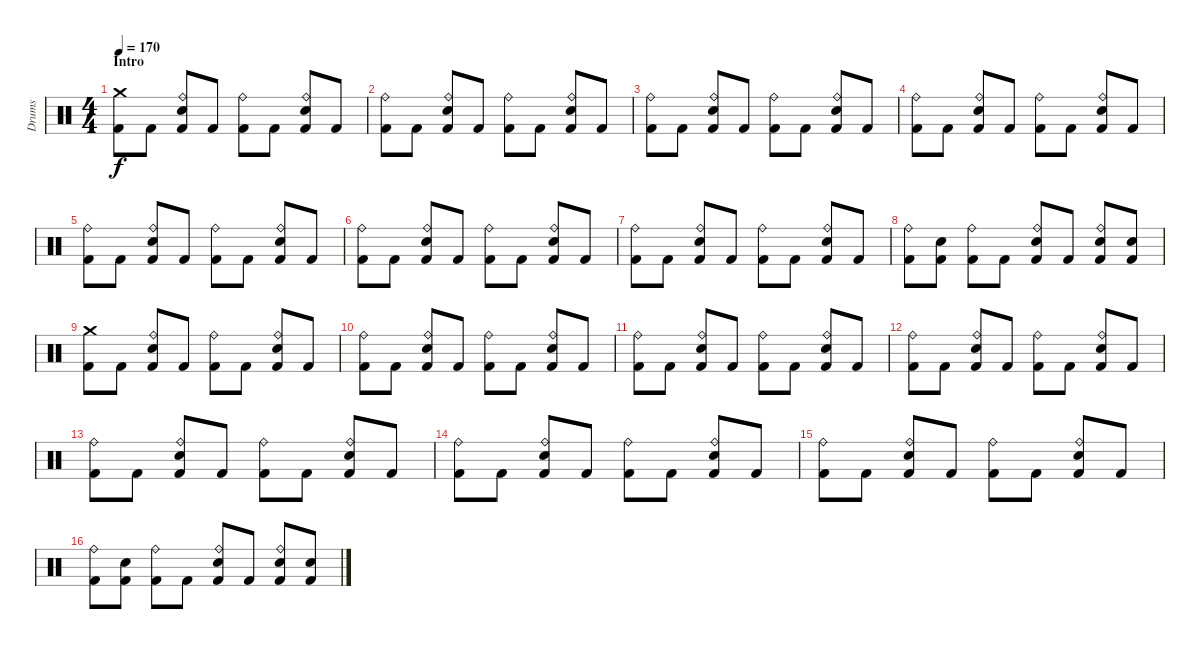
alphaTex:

\track ("Drums" "Drums") {instrument percussion}
\staff {score}
\articulation defaults
\ts (4 4)
\section ("" "Intro")
\tempo 170
\clef neutral
\ks c
("Crash medium (hit)" "Kick (hit) 2").8{dy f} "Kick (hit) 2".8 ("Ride (bell)" "Electric Snare (hit)" "Kick (hit) 2").8 "Kick (hit) 2".8 ("Ride (bell)" "Kick (hit) 2").8 "Kick (hit) 2".8 ("Ride (bell)" "Electric Snare (hit)" "Kick (hit) 2").8 "Kick (hit) 2".8 |
("Ride (bell)" "Kick (hit) 2").8 "Kick (hit) 2".8 ("Ride (bell)" "Electric Snare (hit)" "Kick (hit) 2").8 "Kick (hit) 2".8 ("Ride (bell)" "Kick (hit) 2").8 "Kick (hit) 2".8 ("Ride (bell)" "Electric Snare (hit)" "Kick (hit) 2").8 "Kick (hit) 2".8 |
("Ride (bell)" "Kick (hit) 2").8 "Kick (hit) 2".8 ("Ride (bell)" "Electric Snare (hit)" "Kick (hit) 2").8 "Kick (hit) 2".8 ("Ride (bell)" "Kick (hit) 2").8 "Kick (hit) 2".8 ("Ride (bell)" "Electric Snare (hit)" "Kick (hit) 2").8 "Kick (hit) 2".8 |
("Ride (bell)" "Kick (hit) 2").8 "Kick (hit) 2".8 ("Ride (bell)" "Electric Snare (hit)" "Kick (hit) 2").8 "Kick (hit) 2".8 ("Ride (bell)" "Kick (hit) 2").8 "Kick (hit) 2".8 ("Ride (bell)" "Electric Snare (hit)" "Kick (hit) 2").8 "Kick (hit) 2".8 |
("Ride (bell)" "Kick (hit) 2").8 "Kick (hit) 2".8 ("Ride (bell)" "Electric Snare (hit)" "Kick (hit) 2").8 "Kick (hit) 2".8 ("Ride (bell)" "Kick (hit) 2").8 "Kick (hit) 2".8 ("Ride (bell)" "Electric Snare (hit)" "Kick (hit) 2").8 "Kick (hit) 2".8 |
("Ride (bell)" "Kick (hit) 2").8 "Kick (hit) 2".8 ("Ride (bell)" "Electric Snare (hit)" "Kick (hit) 2").8 "Kick (hit) 2".8 ("Ride (bell)" "Kick (hit) 2").8 "Kick (hit) 2".8 ("Ride (bell)" "Electric Snare (hit)" "Kick (hit) 2").8 "Kick (hit) 2".8 |
("Ride (bell)" "Kick (hit) 2").8 "Kick (hit) 2".8 ("Ride (bell)" "Electric Snare (hit)" "Kick (hit) 2").8 "Kick (hit) 2".8 ("Ride (bell)" "Kick (hit) 2").8 "Kick (hit) 2".8 ("Ride (bell)" "Electric Snare (hit)" "Kick (hit) 2").8 "Kick (hit) 2".8 |
("Ride (bell)" "Kick (hit) 2").8 ("Electric Snare (hit)" "Kick (hit) 2").8 ("Ride (bell)" "Kick (hit) 2").8 "Kick (hit) 2".8 ("Ride (bell)" "Electric Snare (hit)" "Kick (hit) 2").8 "Kick (hit) 2".8 ("Ride (bell)" "Electric Snare (hit)" "Kick (hit) 2").8 ("Electric Snare (hit)" "Kick (hit) 2").8 |
("Crash medium (hit)" "Kick (hit) 2").8 "Kick (hit) 2".8 ("Ride (bell)" "Electric Snare (hit)" "Kick (hit) 2").8 "Kick (hit) 2".8 ("Ride (bell)" "Kick (hit) 2").8 "Kick (hit) 2".8 ("Ride (bell)" "Electric Snare (hit)" "Kick (hit) 2").8 "Kick (hit) 2".8 |
("Ride (bell)" "Kick (hit) 2").8 "Kick (hit) 2".8 ("Ride (bell)" "Electric Snare (hit)" "Kick (hit) 2").8 "Kick (hit) 2".8 ("Ride (bell)" "Kick (hit) 2").8 "Kick (hit) 2".8 ("Ride (bell)" "Electric Snare (hit)" "Kick (hit) 2").8 "Kick (hit) 2".8 |
("Ride (bell)" "Kick (hit) 2").8 "Kick (hit) 2".8 ("Ride (bell)" "Electric Snare (hit)" "Kick (hit) 2").8 "Kick (hit) 2".8 ("Ride (bell)" "Kick (hit) 2").8 "Kick (hit) 2".8 ("Ride (bell)" "Electric Snare (hit)" "Kick (hit) 2").8 "Kick (hit) 2".8 |
("Ride (bell)" "Kick (hit) 2").8 "Kick (hit) 2".8 ("Ride (bell)" "Electric Snare (hit)" "Kick (hit) 2").8 "Kick (hit) 2".8 ("Ride (bell)" "Kick (hit) 2").8 "Kick (hit) 2".8 ("Ride (bell)" "Electric Snare (hit)" "Kick (hit) 2").8 "Kick (hit) 2".8 |
("Ride (bell)" "Kick (hit) 2").8 "Kick (hit) 2".8 ("Ride (bell)" "Electric Snare (hit)" "Kick (hit) 2").8 "Kick (hit) 2".8 ("Ride (bell)" "Kick (hit) 2").8 "Kick (hit) 2".8 ("Ride (bell)" "Electric Snare (hit)" "Kick (hit) 2").8 "Kick (hit) 2".8 |
("Ride (bell)" "Kick (hit) 2").8 "Kick (hit) 2".8 ("Ride (bell)" "Electric Snare (hit)" "Kick (hit) 2").8 "Kick (hit) 2".8 ("Ride (bell)" "Kick (hit) 2").8 "Kick (hit) 2".8 ("Ride (bell)" "Electric Snare (hit)" "Kick (hit) 2").8 "Kick (hit) 2".8 |
("Ride (bell)" "Kick (hit) 2").8 "Kick (hit) 2".8 ("Ride (bell)" "Electric Snare (hit)" "Kick (hit) 2").8 "Kick (hit) 2".8 ("Ride (bell)" "Kick (hit) 2").8 "Kick (hit) 2".8 ("Ride (bell)" "Electric Snare (hit)" "Kick (hit) 2").8 "Kick (hit) 2".8 |
("Ride (bell)" "Kick (hit) 2").8 ("Electric Snare (hit)" "Kick (hit) 2").8 ("Ride (bell)" "Kick (hit) 2").8 "Kick (hit) 2".8 ("Ride (bell)" "Electric Snare (hit)" "Kick (hit) 2").8 "Kick (hit) 2".8 ("Ride (bell)" "Electric Snare (hit)" "Kick (hit) 2").8 ("Electric Snare (hit)" "Kick (hit) 2").8
